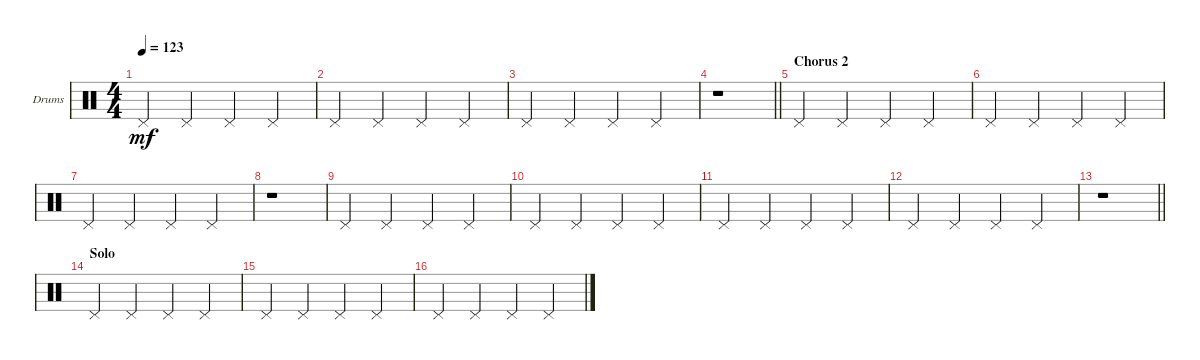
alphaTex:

\defaultSystemsLayout 4
\bracketExtendMode groupsimilarinstruments
\firstSystemTrackNameOrientation horizontal
\otherSystemsTrackNameOrientation horizontal
\track ("Pedal Hithat" "Drums") {instrument percussion}
\staff {score}
\articulation defaults
\ts (4 4)
\tempo 123
\clef neutral
\scale
0.333333
\ks c "Pedal Hi-Hat (hit)".4{dy mf} "Pedal Hi-Hat (hit)".4 "Pedal Hi-Hat (hit)".4 "Pedal Hi-Hat (hit)".4
|
\scale
0.333333 "Pedal Hi-Hat (hit)".4 "Pedal Hi-Hat (hit)".4 "Pedal Hi-Hat (hit)".4 "Pedal Hi-Hat (hit)".4 |
\scale
0.333333 "Pedal Hi-Hat (hit)".4 "Pedal Hi-Hat (hit)".4 "Pedal Hi-Hat (hit)".4 "Pedal Hi-Hat (hit)".4 |
\scale
0.333333
\barLineRight lightlight
r.1 |
\section ("" "Chorus 2")
\scale
0.333333 "Pedal Hi-Hat (hit)".4 "Pedal Hi-Hat (hit)".4 "Pedal Hi-Hat (hit)".4 "Pedal Hi-Hat (hit)".4 |
\scale
0.333333 "Pedal Hi-Hat (hit)".4 "Pedal Hi-Hat (hit)".4 "Pedal Hi-Hat (hit)".4 "Pedal Hi-Hat (hit)".4 |
\scale
0.333333 "Pedal Hi-Hat (hit)".4 "Pedal Hi-Hat (hit)".4 "Pedal Hi-Hat (hit)".4 "Pedal Hi-Hat (hit)".4 |
\scale
0.333333 r.1 |
\scale
0.333333 "Pedal Hi-Hat (hit)".4 "Pedal Hi-Hat (hit)".4 "Pedal Hi-Hat (hit)".4 "Pedal Hi-Hat (hit)".4 |
\scale
0.333333 "Pedal Hi-Hat (hit)".4 "Pedal Hi-Hat (hit)".4 "Pedal Hi-Hat (hit)".4 "Pedal Hi-Hat (hit)".4 |
\scale
0.333333 "Pedal Hi-Hat (hit)".4 "Pedal Hi-Hat (hit)".4 "Pedal Hi-Hat (hit)".4 "Pedal Hi-Hat (hit)".4 |
\scale
0.333333 "Pedal Hi-Hat (hit)".4 "Pedal Hi-Hat (hit)".4 "Pedal Hi-Hat (hit)".4 "Pedal Hi-Hat (hit)".4 |
\scale
0.333333
\barLineRight lightlight
r.1 |
\section ("" "Solo")
\scale
0.333333 "Pedal Hi-Hat (hit)".4 "Pedal Hi-Hat (hit)".4 "Pedal Hi-Hat (hit)".4 "Pedal Hi-Hat (hit)".4 |
\scale
0.333333 "Pedal Hi-Hat (hit)".4 "Pedal Hi-Hat (hit)".4 "Pedal Hi-Hat (hit)".4 "Pedal Hi-Hat (hit)".4 |
\scale
0.333333 "Pedal Hi-Hat (hit)".4 "Pedal Hi-Hat (hit)".4 "Pedal Hi-Hat (hit)".4 "Pedal Hi-Hat (hit)".4
